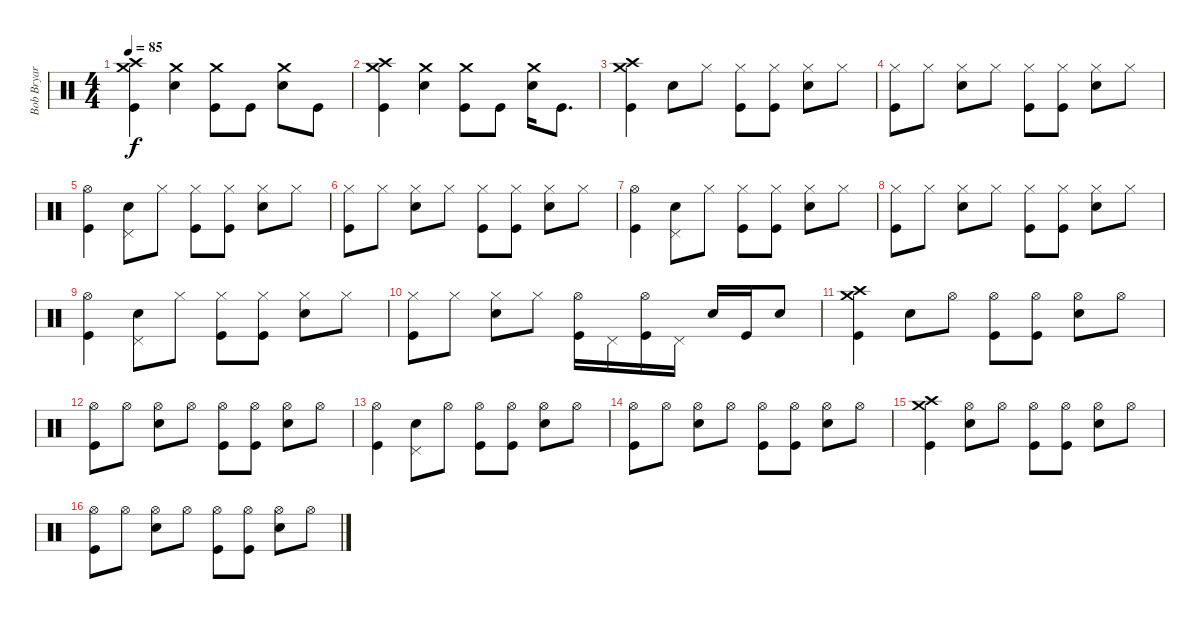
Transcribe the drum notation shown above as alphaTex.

\track ("Bob Bryar (Drums)" "Bob Bryar ") {instrument percussion}
\staff {score}
\articulation defaults
\ts (4 4)
\tempo 85
\clef neutral
\ks c
("Crash high (hit)" "Crash medium (hit)" "Kick (hit)").4{dy f} ("Crash medium (hit)" "Electric Snare (hit)").4 ("Crash medium (hit)" "Kick (hit)").8 "Kick (hit)".8 ("Crash medium (hit)" "Electric Snare (hit)").8 "Kick (hit)".8 |
("Crash high (hit)" "Crash medium (hit)" "Kick (hit)").4 ("Crash medium (hit)" "Electric Snare (hit)").4 ("Crash medium (hit)" "Kick (hit)").8 "Kick (hit)".8 ("Crash medium (hit)" "Electric Snare (hit)").16 "Kick (hit)".8{d} |
("Crash high (hit)" "Crash medium (hit)" "Kick (hit)").4 "Electric Snare (hit)".8 "Hi-Hat (closed)".8 ("Hi-Hat (closed)" "Kick (hit)").8 ("Hi-Hat (closed)" "Kick (hit)").8 ("Hi-Hat (closed)" "Electric Snare (hit)").8 "Hi-Hat (closed)".8 |
("Hi-Hat (closed)" "Kick (hit)").8 "Hi-Hat (closed)".8 ("Hi-Hat (closed)" "Electric Snare (hit)").8 "Hi-Hat (closed)".8 ("Hi-Hat (closed)" "Kick (hit)").8 ("Hi-Hat (closed)" "Kick (hit)").8 ("Hi-Hat (closed)" "Electric Snare (hit)").8 "Hi-Hat (closed)".8 |
("Hi-Hat (open)" "Kick (hit)").4 ("Pedal Hi-Hat (hit)" "Electric Snare (hit)").8 "Hi-Hat (closed)".8 ("Hi-Hat (closed)" "Kick (hit)").8 ("Hi-Hat (closed)" "Kick (hit)").8 ("Hi-Hat (closed)" "Electric Snare (hit)").8 "Hi-Hat (closed)".8 |
("Hi-Hat (closed)" "Kick (hit)").8 "Hi-Hat (closed)".8 ("Hi-Hat (closed)" "Electric Snare (hit)").8 "Hi-Hat (closed)".8 ("Hi-Hat (closed)" "Kick (hit)").8 ("Hi-Hat (closed)" "Kick (hit)").8 ("Hi-Hat (closed)" "Electric Snare (hit)").8 "Hi-Hat (closed)".8 |
("Hi-Hat (open)" "Kick (hit)").4 ("Pedal Hi-Hat (hit)" "Electric Snare (hit)").8 "Hi-Hat (closed)".8 ("Hi-Hat (closed)" "Kick (hit)").8 ("Hi-Hat (closed)" "Kick (hit)").8 ("Hi-Hat (closed)" "Electric Snare (hit)").8 "Hi-Hat (closed)".8 |
("Hi-Hat (closed)" "Kick (hit)").8 "Hi-Hat (closed)".8 ("Hi-Hat (closed)" "Electric Snare (hit)").8 "Hi-Hat (closed)".8 ("Hi-Hat (closed)" "Kick (hit)").8 ("Hi-Hat (closed)" "Kick (hit)").8 ("Hi-Hat (closed)" "Electric Snare (hit)").8 "Hi-Hat (closed)".8 |
("Hi-Hat (open)" "Kick (hit)").4 ("Pedal Hi-Hat (hit)" "Electric Snare (hit)").8 "Hi-Hat (closed)".8 ("Hi-Hat (closed)" "Kick (hit)").8 ("Hi-Hat (closed)" "Kick (hit)").8 ("Hi-Hat (closed)" "Electric Snare (hit)").8 "Hi-Hat (closed)".8 |
("Hi-Hat (closed)" "Kick (hit)").8 "Hi-Hat (closed)".8 ("Hi-Hat (closed)" "Electric Snare (hit)").8 "Hi-Hat (closed)".8 ("Hi-Hat (open)" "Kick (hit)").16 "Pedal Hi-Hat (hit)".16 ("Hi-Hat (open)" "Kick (hit)").16 "Pedal Hi-Hat (hit)".16 "Electric Snare (hit)".16 "Kick (hit)".16 "Electric Snare (hit)".8 |
("Crash high (hit)" "Crash medium (hit)" "Kick (hit)").4 "Electric Snare (hit)".8 "Hi-Hat (open)".8 ("Hi-Hat (open)" "Kick (hit)").8 ("Hi-Hat (open)" "Kick (hit)").8 ("Hi-Hat (open)" "Electric Snare (hit)").8 "Hi-Hat (open)".8 |
("Hi-Hat (open)" "Kick (hit)").8 "Hi-Hat (open)".8 ("Hi-Hat (open)" "Electric Snare (hit)").8 "Hi-Hat (open)".8 ("Hi-Hat (open)" "Kick (hit)").8 ("Hi-Hat (open)" "Kick (hit)").8 ("Hi-Hat (open)" "Electric Snare (hit)").8 "Hi-Hat (open)".8 |
("Hi-Hat (open)" "Kick (hit)").4 ("Pedal Hi-Hat (hit)" "Electric Snare (hit)").8 "Hi-Hat (open)".8 ("Hi-Hat (open)" "Kick (hit)").8 ("Hi-Hat (open)" "Kick (hit)").8 ("Hi-Hat (open)" "Electric Snare (hit)").8 "Hi-Hat (open)".8 |
("Hi-Hat (open)" "Kick (hit)").8 "Hi-Hat (open)".8 ("Hi-Hat (open)" "Electric Snare (hit)").8 "Hi-Hat (open)".8 ("Hi-Hat (open)" "Kick (hit)").8 ("Hi-Hat (open)" "Kick (hit)").8 ("Hi-Hat (open)" "Electric Snare (hit)").8 "Hi-Hat (open)".8 |
("Crash high (hit)" "Crash medium (hit)" "Kick (hit)").4 ("Hi-Hat (open)" "Electric Snare (hit)").8 "Hi-Hat (open)".8 ("Hi-Hat (open)" "Kick (hit)").8 ("Hi-Hat (open)" "Kick (hit)").8 ("Hi-Hat (open)" "Electric Snare (hit)").8 "Hi-Hat (open)".8 |
("Hi-Hat (open)" "Kick (hit)").8 "Hi-Hat (open)".8 ("Hi-Hat (open)" "Electric Snare (hit)").8 "Hi-Hat (open)".8 ("Hi-Hat (open)" "Kick (hit)").8 ("Hi-Hat (open)" "Kick (hit)").8 ("Hi-Hat (open)" "Electric Snare (hit)").8 "Hi-Hat (open)".8
